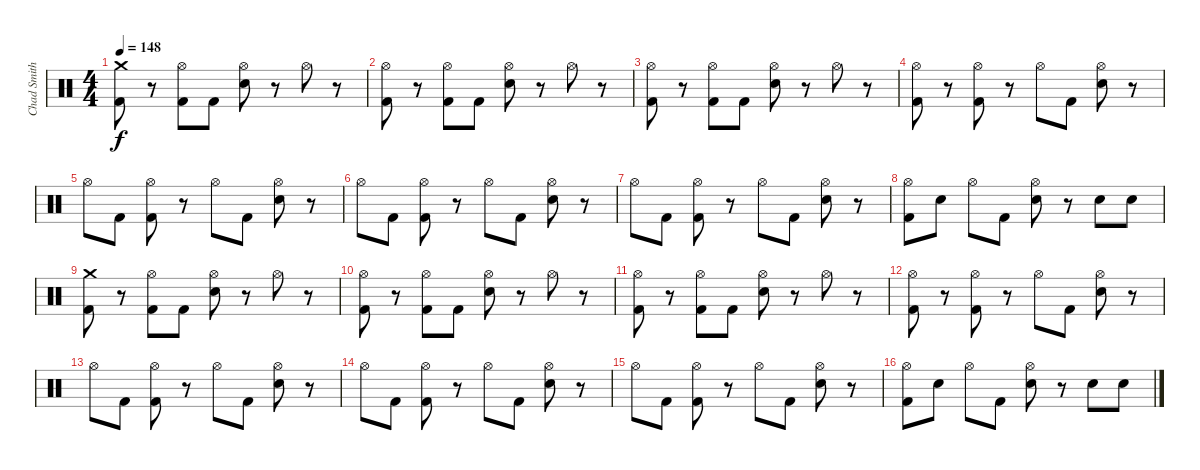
\track ("Chad Smith" "Chad Smith") {instrument percussion}
\staff {score}
\articulation defaults
\ts (4 4)
\tempo 148
\clef neutral
\ks c
("Crash medium (hit)" "Kick (hit) 2").8{dy f} r.8 ("Hi-Hat (open)" "Kick (hit) 2").8 "Kick (hit) 2".8 ("Hi-Hat (open)" "Snare (hit) 2").8 r.8 "Hi-Hat (open)".8 r.8 |
("Hi-Hat (open)" "Kick (hit) 2").8 r.8 ("Hi-Hat (open)" "Kick (hit) 2").8 "Kick (hit) 2".8 ("Hi-Hat (open)" "Snare (hit) 2").8 r.8 "Hi-Hat (open)".8 r.8 |
("Hi-Hat (open)" "Kick (hit) 2").8 r.8 ("Hi-Hat (open)" "Kick (hit) 2").8 "Kick (hit) 2".8 ("Hi-Hat (open)" "Snare (hit) 2").8 r.8 "Hi-Hat (open)".8 r.8 |
("Hi-Hat (open)" "Kick (hit) 2").8 r.8 ("Hi-Hat (open)" "Kick (hit) 2").8 r.8 "Hi-Hat (open)".8 "Kick (hit) 2".8 ("Hi-Hat (open)" "Snare (hit) 2").8 r.8 |
"Hi-Hat (open)".8 "Kick (hit) 2".8 ("Hi-Hat (open)" "Kick (hit) 2").8 r.8 "Hi-Hat (open)".8 "Kick (hit) 2".8 ("Hi-Hat (open)" "Snare (hit) 2").8 r.8 |
"Hi-Hat (open)".8 "Kick (hit) 2".8 ("Hi-Hat (open)" "Kick (hit) 2").8 r.8 "Hi-Hat (open)".8 "Kick (hit) 2".8 ("Hi-Hat (open)" "Snare (hit) 2").8 r.8 |
"Hi-Hat (open)".8 "Kick (hit) 2".8 ("Hi-Hat (open)" "Kick (hit) 2").8 r.8 "Hi-Hat (open)".8 "Kick (hit) 2".8 ("Hi-Hat (open)" "Snare (hit) 2").8 r.8 |
("Hi-Hat (open)" "Kick (hit) 2").8 "Snare (hit) 2".8 "Hi-Hat (open)".8 "Kick (hit) 2".8 ("Hi-Hat (open)" "Snare (hit) 2").8 r.8 "Snare (hit) 2".8 "Snare (hit) 2".8 |
("Crash medium (hit)" "Kick (hit) 2").8 r.8 ("Hi-Hat (open)" "Kick (hit) 2").8 "Kick (hit) 2".8 ("Hi-Hat (open)" "Snare (hit) 2").8 r.8 "Hi-Hat (open)".8 r.8 |
("Hi-Hat (open)" "Kick (hit) 2").8 r.8 ("Hi-Hat (open)" "Kick (hit) 2").8 "Kick (hit) 2".8 ("Hi-Hat (open)" "Snare (hit) 2").8 r.8 "Hi-Hat (open)".8 r.8 |
("Hi-Hat (open)" "Kick (hit) 2").8 r.8 ("Hi-Hat (open)" "Kick (hit) 2").8 "Kick (hit) 2".8 ("Hi-Hat (open)" "Snare (hit) 2").8 r.8 "Hi-Hat (open)".8 r.8 |
("Hi-Hat (open)" "Kick (hit) 2").8 r.8 ("Hi-Hat (open)" "Kick (hit) 2").8 r.8 "Hi-Hat (open)".8 "Kick (hit) 2".8 ("Hi-Hat (open)" "Snare (hit) 2").8 r.8 |
"Hi-Hat (open)".8 "Kick (hit) 2".8 ("Hi-Hat (open)" "Kick (hit) 2").8 r.8 "Hi-Hat (open)".8 "Kick (hit) 2".8 ("Hi-Hat (open)" "Snare (hit) 2").8 r.8 |
"Hi-Hat (open)".8 "Kick (hit) 2".8 ("Hi-Hat (open)" "Kick (hit) 2").8 r.8 "Hi-Hat (open)".8 "Kick (hit) 2".8 ("Hi-Hat (open)" "Snare (hit) 2").8 r.8 |
"Hi-Hat (open)".8 "Kick (hit) 2".8 ("Hi-Hat (open)" "Kick (hit) 2").8 r.8 "Hi-Hat (open)".8 "Kick (hit) 2".8 ("Hi-Hat (open)" "Snare (hit) 2").8 r.8 |
("Hi-Hat (open)" "Kick (hit) 2").8 "Snare (hit) 2".8 "Hi-Hat (open)".8 "Kick (hit) 2".8 ("Hi-Hat (open)" "Snare (hit) 2").8 r.8 "Snare (hit) 2".8 "Snare (hit) 2".8
